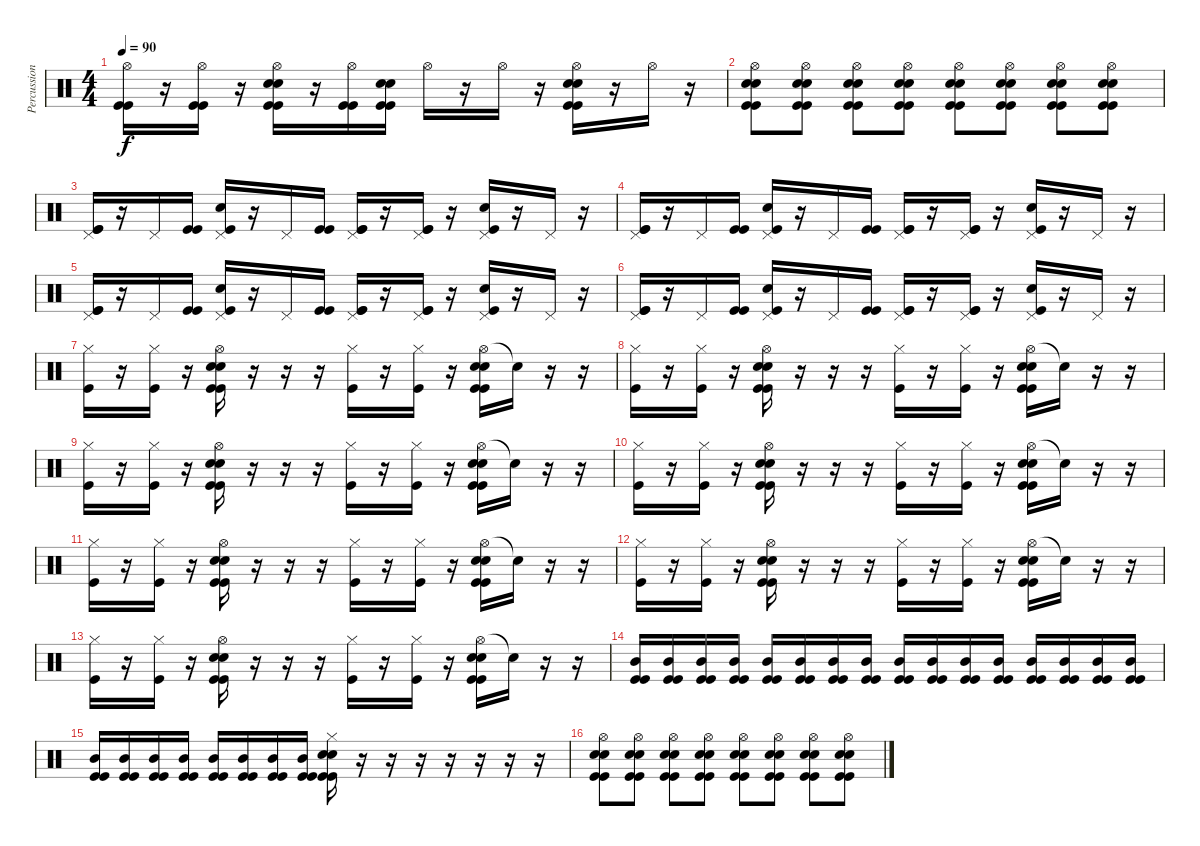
\track ("Percussion" "Percussion") {instrument percussion}
\staff {score}
\articulation defaults
\ts (4 4)
\tempo 90
\clef neutral
\ks c
("Hi-Hat (open)" "Kick (hit)" "Kick (hit)").16{dy f} r.16 ("Hi-Hat (open)" "Kick (hit)" "Kick (hit)").16 r.16 ("Hi-Hat (open)" "Kick (hit)" "Kick (hit)" "Electric Snare (hit)" "Electric Snare (hit)").16 r.16 ("Hi-Hat (open)" "Kick (hit)" "Kick (hit)").16 ("Kick (hit)" "Kick (hit)" "Electric Snare (hit)" "Electric Snare (hit)").16 "Hi-Hat (open)".16 r.16 "Hi-Hat (open)".16 r.16 ("Hi-Hat (open)" "Kick (hit)" "Kick (hit)" "Electric Snare (hit)" "Electric Snare (hit)").16 r.16 "Hi-Hat (open)".16 r.16 |
("Hi-Hat (open)" "Kick (hit)" "Kick (hit)" "Electric Snare (hit)" "Electric Snare (hit)").8 ("Hi-Hat (open)" "Kick (hit)" "Kick (hit)" "Electric Snare (hit)" "Electric Snare (hit)").8 ("Hi-Hat (open)" "Kick (hit)" "Kick (hit)" "Electric Snare (hit)" "Electric Snare (hit)").8 ("Hi-Hat (open)" "Kick (hit)" "Kick (hit)" "Electric Snare (hit)" "Electric Snare (hit)").8 ("Hi-Hat (open)" "Kick (hit)" "Kick (hit)" "Electric Snare (hit)" "Electric Snare (hit)").8 ("Hi-Hat (open)" "Kick (hit)" "Kick (hit)" "Electric Snare (hit)" "Electric Snare (hit)").8 ("Hi-Hat (open)" "Kick (hit)" "Kick (hit)" "Electric Snare (hit)" "Electric Snare (hit)").8 ("Hi-Hat (open)" "Kick (hit)" "Kick (hit)" "Electric Snare (hit)" "Electric Snare (hit)").8 |
("Pedal Hi-Hat (hit)" "Kick (hit)" "Kick (hit)").16 r.16 "Pedal Hi-Hat (hit)".16 ("Kick (hit)" "Kick (hit)").16 ("Pedal Hi-Hat (hit)" "Kick (hit)" "Electric Snare (hit)").16 r.16 "Pedal Hi-Hat (hit)".16 ("Kick (hit)" "Kick (hit)").16 ("Pedal Hi-Hat (hit)" "Kick (hit)" "Kick (hit)").16 r.16 ("Pedal Hi-Hat (hit)" "Kick (hit)" "Kick (hit)").16 r.16 ("Pedal Hi-Hat (hit)" "Kick (hit)" "Electric Snare (hit)").16 r.16 "Pedal Hi-Hat (hit)".16 r.16 |
("Pedal Hi-Hat (hit)" "Kick (hit)" "Kick (hit)").16 r.16 "Pedal Hi-Hat (hit)".16 ("Kick (hit)" "Kick (hit)").16 ("Pedal Hi-Hat (hit)" "Kick (hit)" "Electric Snare (hit)").16 r.16 "Pedal Hi-Hat (hit)".16 ("Kick (hit)" "Kick (hit)").16 ("Pedal Hi-Hat (hit)" "Kick (hit)" "Kick (hit)").16 r.16 ("Pedal Hi-Hat (hit)" "Kick (hit)" "Kick (hit)").16 r.16 ("Pedal Hi-Hat (hit)" "Kick (hit)" "Electric Snare (hit)").16 r.16 "Pedal Hi-Hat (hit)".16 r.16 |
("Pedal Hi-Hat (hit)" "Kick (hit)" "Kick (hit)").16 r.16 "Pedal Hi-Hat (hit)".16 ("Kick (hit)" "Kick (hit)").16 ("Pedal Hi-Hat (hit)" "Kick (hit)" "Electric Snare (hit)").16 r.16 "Pedal Hi-Hat (hit)".16 ("Kick (hit)" "Kick (hit)").16 ("Pedal Hi-Hat (hit)" "Kick (hit)" "Kick (hit)").16 r.16 ("Pedal Hi-Hat (hit)" "Kick (hit)" "Kick (hit)").16 r.16 ("Pedal Hi-Hat (hit)" "Kick (hit)" "Electric Snare (hit)").16 r.16 "Pedal Hi-Hat (hit)".16 r.16 |
("Pedal Hi-Hat (hit)" "Kick (hit)" "Kick (hit)").16 r.16 "Pedal Hi-Hat (hit)".16 ("Kick (hit)" "Kick (hit)").16 ("Pedal Hi-Hat (hit)" "Kick (hit)" "Electric Snare (hit)").16 r.16 "Pedal Hi-Hat (hit)".16 ("Kick (hit)" "Kick (hit)").16 ("Pedal Hi-Hat (hit)" "Kick (hit)" "Kick (hit)").16 r.16 ("Pedal Hi-Hat (hit)" "Kick (hit)" "Kick (hit)").16 r.16 ("Pedal Hi-Hat (hit)" "Kick (hit)" "Electric Snare (hit)").16 r.16 "Pedal Hi-Hat (hit)".16 r.16 |
("Hi-Hat (closed)" "Kick (hit)").16 r.16 ("Hi-Hat (closed)" "Kick (hit)").16 r.16 ("Hi-Hat (open)" "Kick (hit)" "Kick (hit)" "Electric Snare (hit)" "Electric Snare (hit)").16 r.16 r.16 r.16 ("Hi-Hat (closed)" "Kick (hit)").16 r.16 ("Hi-Hat (closed)" "Kick (hit)").16 r.16 ("Hi-Hat (open)" "Kick (hit)" "Kick (hit)" "Electric Snare (hit)" "Electric Snare (hit)").16 "Snare (hit)"{t}.16 r.16 r.16 |
("Hi-Hat (closed)" "Kick (hit)").16 r.16 ("Hi-Hat (closed)" "Kick (hit)").16 r.16 ("Hi-Hat (open)" "Kick (hit)" "Kick (hit)" "Electric Snare (hit)" "Electric Snare (hit)").16 r.16 r.16 r.16 ("Hi-Hat (closed)" "Kick (hit)").16 r.16 ("Hi-Hat (closed)" "Kick (hit)").16 r.16 ("Hi-Hat (open)" "Kick (hit)" "Kick (hit)" "Electric Snare (hit)" "Electric Snare (hit)").16 "Snare (hit)"{t}.16 r.16 r.16 |
("Hi-Hat (closed)" "Kick (hit)").16 r.16 ("Hi-Hat (closed)" "Kick (hit)").16 r.16 ("Hi-Hat (open)" "Kick (hit)" "Kick (hit)" "Electric Snare (hit)" "Electric Snare (hit)").16 r.16 r.16 r.16 ("Hi-Hat (closed)" "Kick (hit)").16 r.16 ("Hi-Hat (closed)" "Kick (hit)").16 r.16 ("Hi-Hat (open)" "Kick (hit)" "Kick (hit)" "Electric Snare (hit)" "Electric Snare (hit)").16 "Snare (hit)"{t}.16 r.16 r.16 |
("Hi-Hat (closed)" "Kick (hit)").16 r.16 ("Hi-Hat (closed)" "Kick (hit)").16 r.16 ("Hi-Hat (open)" "Kick (hit)" "Kick (hit)" "Electric Snare (hit)" "Electric Snare (hit)").16 r.16 r.16 r.16 ("Hi-Hat (closed)" "Kick (hit)").16 r.16 ("Hi-Hat (closed)" "Kick (hit)").16 r.16 ("Hi-Hat (open)" "Kick (hit)" "Kick (hit)" "Electric Snare (hit)" "Electric Snare (hit)").16 "Snare (hit)"{t}.16 r.16 r.16 |
("Hi-Hat (closed)" "Kick (hit)").16 r.16 ("Hi-Hat (closed)" "Kick (hit)").16 r.16 ("Hi-Hat (open)" "Kick (hit)" "Kick (hit)" "Electric Snare (hit)" "Electric Snare (hit)").16 r.16 r.16 r.16 ("Hi-Hat (closed)" "Kick (hit)").16 r.16 ("Hi-Hat (closed)" "Kick (hit)").16 r.16 ("Hi-Hat (open)" "Kick (hit)" "Kick (hit)" "Electric Snare (hit)" "Electric Snare (hit)").16 "Snare (hit)"{t}.16 r.16 r.16 |
("Hi-Hat (closed)" "Kick (hit)").16 r.16 ("Hi-Hat (closed)" "Kick (hit)").16 r.16 ("Hi-Hat (open)" "Kick (hit)" "Kick (hit)" "Electric Snare (hit)" "Electric Snare (hit)").16 r.16 r.16 r.16 ("Hi-Hat (closed)" "Kick (hit)").16 r.16 ("Hi-Hat (closed)" "Kick (hit)").16 r.16 ("Hi-Hat (open)" "Kick (hit)" "Kick (hit)" "Electric Snare (hit)" "Electric Snare (hit)").16 "Snare (hit)"{t}.16 r.16 r.16 |
("Hi-Hat (closed)" "Kick (hit)").16 r.16 ("Hi-Hat (closed)" "Kick (hit)").16 r.16 ("Hi-Hat (open)" "Kick (hit)" "Kick (hit)" "Electric Snare (hit)" "Electric Snare (hit)").16 r.16 r.16 r.16 ("Hi-Hat (closed)" "Kick (hit)").16 r.16 ("Hi-Hat (closed)" "Kick (hit)").16 r.16 ("Hi-Hat (open)" "Kick (hit)" "Kick (hit)" "Electric Snare (hit)" "Electric Snare (hit)").16 "Snare (hit)"{t}.16 r.16 r.16 |
("Kick (hit)" "Kick (hit)" "Mid Tom (hit)").16 ("Kick (hit)" "Kick (hit)" "Mid Tom (hit)").16 ("Kick (hit)" "Kick (hit)" "Mid Tom (hit)").16 ("Kick (hit)" "Kick (hit)" "Mid Tom (hit)").16 ("Kick (hit)" "Kick (hit)" "Mid Tom (hit)").16 ("Kick (hit)" "Kick (hit)" "Mid Tom (hit)").16 ("Kick (hit)" "Kick (hit)" "Mid Tom (hit)").16 ("Kick (hit)" "Kick (hit)" "Mid Tom (hit)").16 ("Kick (hit)" "Kick (hit)" "Mid Tom (hit)").16 ("Kick (hit)" "Kick (hit)" "Mid Tom (hit)").16 ("Kick (hit)" "Kick (hit)" "Mid Tom (hit)").16 ("Kick (hit)" "Kick (hit)" "Mid Tom (hit)").16 ("Kick (hit)" "Kick (hit)" "Mid Tom (hit)").16 ("Kick (hit)" "Kick (hit)" "Mid Tom (hit)").16 ("Kick (hit)" "Kick (hit)" "Mid Tom (hit)").16 ("Kick (hit)" "Kick (hit)" "Mid Tom (hit)").16 |
("Kick (hit)" "Kick (hit)" "Mid Tom (hit)").16 ("Kick (hit)" "Kick (hit)" "Mid Tom (hit)").16 ("Kick (hit)" "Kick (hit)" "Mid Tom (hit)").16 ("Kick (hit)" "Kick (hit)" "Mid Tom (hit)").16 ("Kick (hit)" "Kick (hit)" "Mid Tom (hit)").16 ("Kick (hit)" "Kick (hit)" "Mid Tom (hit)").16 ("Kick (hit)" "Kick (hit)" "Mid Tom (hit)").16 ("Kick (hit)" "Kick (hit)" "Mid Tom (hit)").16 ("Hi-Hat (closed)" "Kick (hit)" "Kick (hit)" "Electric Snare (hit)" "Electric Snare (hit)").16 r.16 r.16 r.16 r.16 r.16 r.16 r.16 |
("Hi-Hat (open)" "Kick (hit)" "Kick (hit)" "Electric Snare (hit)" "Electric Snare (hit)").8 ("Hi-Hat (open)" "Kick (hit)" "Kick (hit)" "Electric Snare (hit)" "Electric Snare (hit)").8 ("Hi-Hat (open)" "Kick (hit)" "Kick (hit)" "Electric Snare (hit)" "Electric Snare (hit)").8 ("Hi-Hat (open)" "Kick (hit)" "Kick (hit)" "Electric Snare (hit)" "Electric Snare (hit)").8 ("Hi-Hat (open)" "Kick (hit)" "Kick (hit)" "Electric Snare (hit)" "Electric Snare (hit)").8 ("Hi-Hat (open)" "Kick (hit)" "Kick (hit)" "Electric Snare (hit)" "Electric Snare (hit)").8 ("Hi-Hat (open)" "Kick (hit)" "Kick (hit)" "Electric Snare (hit)" "Electric Snare (hit)").8 ("Hi-Hat (open)" "Kick (hit)" "Kick (hit)" "Electric Snare (hit)" "Electric Snare (hit)").8
